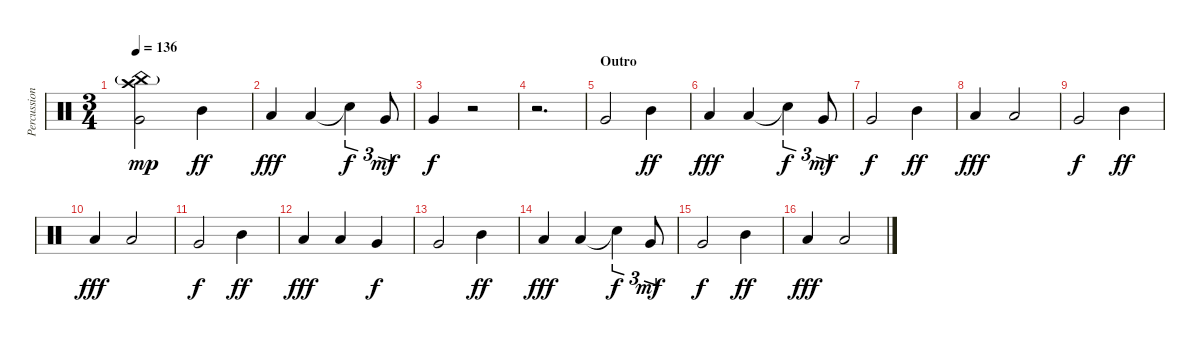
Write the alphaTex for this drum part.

\track ("Percussions / Stephen Van Haestregt" "Percussion") {instrument percussion}
\staff {score}
\articulation defaults
\ts (3 4)
\tempo 136
\clef neutral
\ks c
("Crash high (hit)" "China (hit)"{g} "Very Low Tom (hit)").2{dy mp} "Mid Tom (hit)".4{dy ff} |
"Low Tom (hit)".4{dy fff} "Low Tom (hit)".4 "Snare (hit)"{t}.4{tu (3 2) dy f} "Very Low Tom (hit)".8{tu (3 2) dy mf} |
"Very Low Tom (hit)".4{dy f} r.2 |
r.2{d} |
\section ("" "Outro")
"Very Low Tom (hit)".2 "Mid Tom (hit)".4{dy ff} |
"Low Tom (hit)".4{dy fff} "Low Tom (hit)".4 "Snare (hit)"{t}.4{tu (3 2) dy f} "Very Low Tom (hit)".8{tu (3 2) dy mf} |
"Very Low Tom (hit)".2{dy f} "Mid Tom (hit)".4{dy ff} |
"Low Tom (hit)".4{dy fff} "Low Tom (hit)".2 |
"Very Low Tom (hit)".2{dy f} "Mid Tom (hit)".4{dy ff} |
"Low Tom (hit)".4{dy fff} "Low Tom (hit)".2 |
"Very Low Tom (hit)".2{dy f} "Mid Tom (hit)".4{dy ff} |
"Low Tom (hit)".4{dy fff} "Low Tom (hit)".4 "Very Low Tom (hit)".4{dy f} |
"Very Low Tom (hit)".2 "Mid Tom (hit)".4{dy ff} |
"Low Tom (hit)".4{dy fff} "Low Tom (hit)".4 "Snare (hit)"{t}.4{tu (3 2) dy f} "Very Low Tom (hit)".8{tu (3 2) dy mf} |
"Very Low Tom (hit)".2{dy f} "Mid Tom (hit)".4{dy ff} |
"Low Tom (hit)".4{dy fff} "Low Tom (hit)".2
